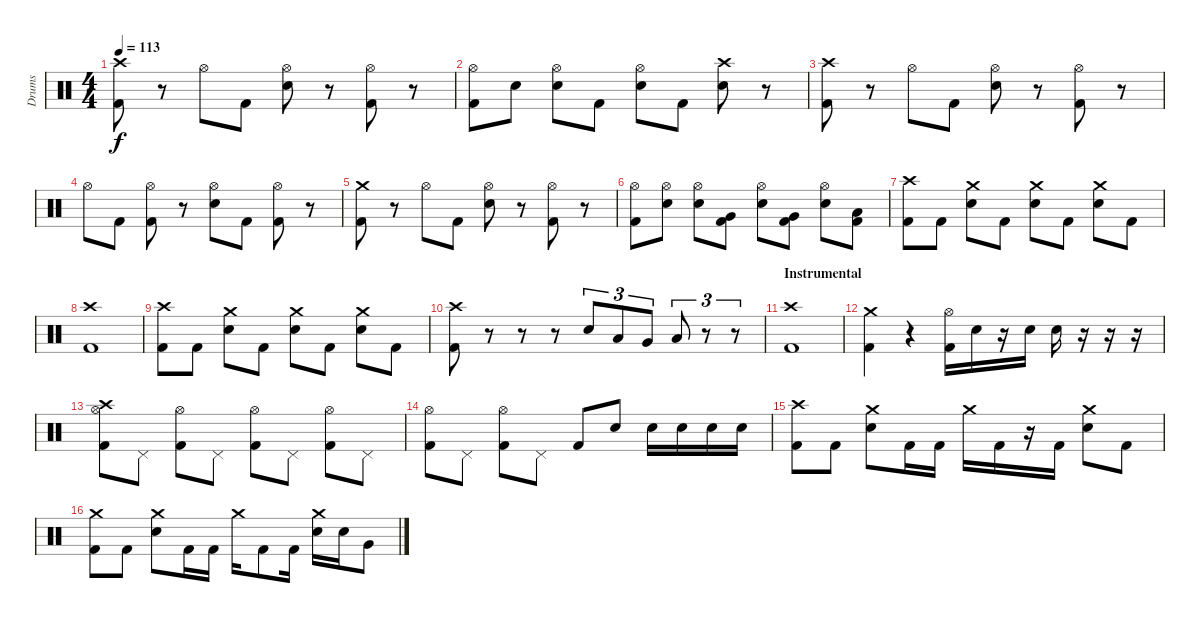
\track ("Drums" "Drums") {instrument percussion}
\staff {score}
\articulation defaults
\ts (4 4)
\tempo 113
\clef neutral
\ks c
("Crash high (hit)" "Kick (hit) 2").8{dy f} r.8 "Hi-Hat (open)".8 "Kick (hit) 2".8 ("Hi-Hat (open)" "Snare (hit) 2").8 r.8 ("Hi-Hat (open)" "Kick (hit) 2").8 r.8 |
("Hi-Hat (open)" "Kick (hit) 2").8 "Snare (hit) 2".8 ("Hi-Hat (open)" "Snare (hit) 2").8 "Kick (hit) 2".8 ("Hi-Hat (open)" "Snare (hit) 2").8 "Kick (hit) 2".8 ("Crash high (hit)" "Snare (hit) 2").8 r.8 |
("Crash high (hit)" "Kick (hit) 2").8 r.8 "Hi-Hat (open)".8 "Kick (hit) 2".8 ("Hi-Hat (open)" "Snare (hit) 2").8 r.8 ("Hi-Hat (open)" "Kick (hit) 2").8 r.8 |
"Hi-Hat (open)".8 "Kick (hit) 2".8 ("Hi-Hat (open)" "Kick (hit) 2").8 r.8 ("Hi-Hat (open)" "Snare (hit) 2").8 "Kick (hit) 2".8 ("Hi-Hat (open)" "Kick (hit) 2").8 r.8 |
("Crash medium (hit)" "Kick (hit) 2").8 r.8 "Hi-Hat (open)".8 "Kick (hit) 2".8 ("Hi-Hat (open)" "Snare (hit) 2").8 r.8 ("Hi-Hat (open)" "Kick (hit) 2").8 r.8 |
("Hi-Hat (open)" "Kick (hit) 2").8 ("Hi-Hat (open)" "Snare (hit) 2").8 ("Hi-Hat (open)" "Snare (hit) 2").8 ("Very Low Tom (hit)" "Kick (hit) 2").8 ("Hi-Hat (open)" "Snare (hit) 2").8 ("Very Low Tom (hit)" "Kick (hit) 2").8 ("Hi-Hat (open)" "Snare (hit) 2").8 ("Low Floor Tom (hit)" "Kick (hit) 2").8 |
("Crash high (hit)" "Kick (hit) 2").8 "Kick (hit) 2".8 ("Crash medium (hit)" "Snare (hit) 2").8 "Kick (hit) 2".8 ("Crash medium (hit)" "Snare (hit) 2").8 "Kick (hit) 2".8 ("Crash medium (hit)" "Snare (hit) 2").8 "Kick (hit) 2".8 |
("Crash high (hit)" "Kick (hit) 2").1 |
("Crash high (hit)" "Kick (hit) 2").8 "Kick (hit) 2".8 ("Crash medium (hit)" "Snare (hit) 2").8 "Kick (hit) 2".8 ("Crash medium (hit)" "Snare (hit) 2").8 "Kick (hit) 2".8 ("Crash medium (hit)" "Snare (hit) 2").8 "Kick (hit) 2".8 |
("Crash high (hit)" "Kick (hit) 2").8 r.8 r.8 r.8 "Snare (hit) 2".8{tu (3 2)} "Low Tom (hit)".8{tu (3 2)} "Very Low Tom (hit)".8{tu (3 2)} "Low Floor Tom (hit)".8{tu (3 2)} r.8{tu (3 2)} r.8{tu (3 2)} |
\section ("" "Instrumental")
("Crash high (hit)" "Kick (hit) 2").1 |
("Crash medium (hit)" "Kick (hit) 2").4 r.4 ("Hi-Hat (open)" "Kick (hit) 2").16 "Snare (hit) 2".16 r.16 "Snare (hit) 2".16 "Snare (hit) 2".16 r.16 r.16 r.16 |
("Crash high (hit)" "Hi-Hat (open)" "Kick (hit) 2").8 "Pedal Hi-Hat (hit)".8 ("Hi-Hat (open)" "Kick (hit) 2").8 "Pedal Hi-Hat (hit)".8 ("Hi-Hat (open)" "Kick (hit) 2").8 "Pedal Hi-Hat (hit)".8 ("Hi-Hat (open)" "Kick (hit) 2").8 "Pedal Hi-Hat (hit)".8 |
("Hi-Hat (open)" "Kick (hit) 2").8 "Pedal Hi-Hat (hit)".8 ("Hi-Hat (open)" "Kick (hit) 2").8 "Pedal Hi-Hat (hit)".8 "Kick (hit) 2".8 "Snare (hit) 2".8 "Snare (hit) 2".16 "Snare (hit) 2".16 "Snare (hit) 2".16 "Snare (hit) 2".16 |
("Crash high (hit)" "Kick (hit) 2").8 "Kick (hit) 2".8 ("Crash medium (hit)" "Snare (hit) 2").8 "Kick (hit) 2".16 "Kick (hit) 2".16 "Crash medium (hit)".16 "Kick (hit) 2".16 r.16 "Kick (hit) 2".16 ("Crash medium (hit)" "Snare (hit) 2").8 "Kick (hit) 2".8 |
("Crash medium (hit)" "Kick (hit) 2").8 "Kick (hit) 2".8 ("Crash medium (hit)" "Snare (hit) 2").8 "Kick (hit) 2".16 "Kick (hit) 2".16 "Crash medium (hit)".16 "Kick (hit) 2".8 "Kick (hit) 2".16 ("Crash medium (hit)" "Snare (hit) 2").16 "Snare (hit) 2".16 "Very Low Tom (hit)".8
